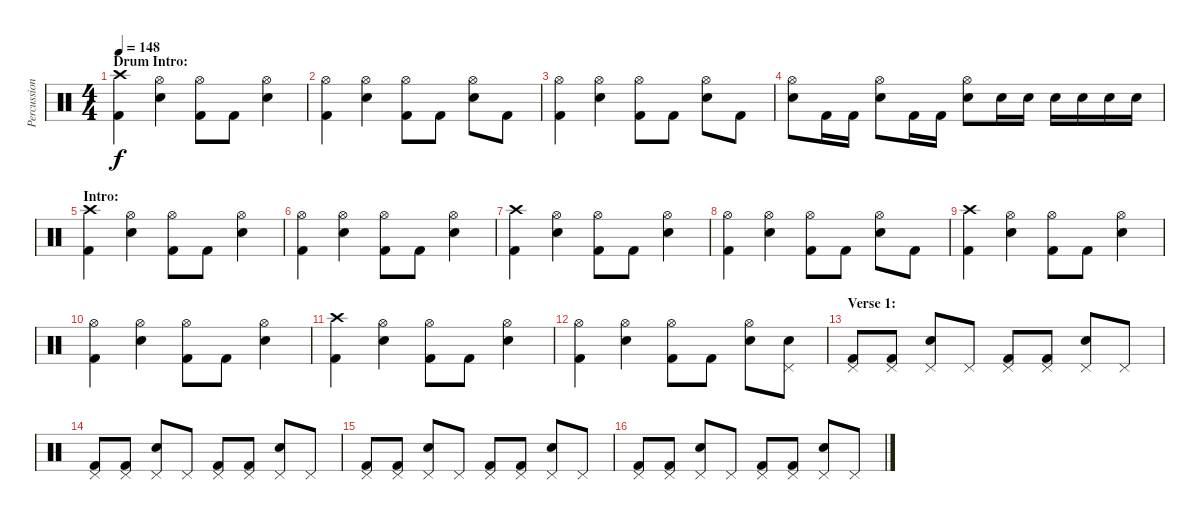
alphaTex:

\track ("Percussion" "Percussion") {instrument percussion}
\staff {score}
\articulation defaults
\ts (4 4)
\section ("" "Drum Intro:")
\tempo 148
\clef neutral
\ks c
("Crash high (hit)" "Kick (hit) 2").4{dy f} ("Hi-Hat (open)" "Electric Snare (hit)").4 ("Hi-Hat (open)" "Kick (hit) 2").8 "Kick (hit) 2".8 ("Hi-Hat (open)" "Electric Snare (hit)").4 |
("Hi-Hat (open)" "Kick (hit) 2").4 ("Hi-Hat (open)" "Electric Snare (hit)").4 ("Hi-Hat (open)" "Kick (hit) 2").8 "Kick (hit) 2".8 ("Hi-Hat (open)" "Electric Snare (hit)").8 "Kick (hit) 2".8 |
("Hi-Hat (open)" "Kick (hit) 2").4 ("Hi-Hat (open)" "Electric Snare (hit)").4 ("Hi-Hat (open)" "Kick (hit) 2").8 "Kick (hit) 2".8 ("Hi-Hat (open)" "Electric Snare (hit)").8 "Kick (hit) 2".8 |
("Hi-Hat (open)" "Electric Snare (hit)").8 "Kick (hit) 2".16 "Kick (hit) 2".16 ("Hi-Hat (open)" "Electric Snare (hit)").8 "Kick (hit) 2".16 "Kick (hit) 2".16 ("Hi-Hat (open)" "Electric Snare (hit)").8 "Electric Snare (hit)".16 "Electric Snare (hit)".16 "Electric Snare (hit)".16 "Electric Snare (hit)".16 "Electric Snare (hit)".16 "Electric Snare (hit)".16 |
\section ("" "Intro:")
("Crash high (hit)" "Kick (hit) 2").4 ("Hi-Hat (open)" "Electric Snare (hit)").4 ("Hi-Hat (open)" "Kick (hit) 2").8 "Kick (hit) 2".8 ("Hi-Hat (open)" "Electric Snare (hit)").4 |
("Hi-Hat (open)" "Kick (hit) 2").4 ("Hi-Hat (open)" "Electric Snare (hit)").4 ("Hi-Hat (open)" "Kick (hit) 2").8 "Kick (hit) 2".8 ("Hi-Hat (open)" "Electric Snare (hit)").4 |
("Crash high (hit)" "Kick (hit) 2").4 ("Hi-Hat (open)" "Electric Snare (hit)").4 ("Hi-Hat (open)" "Kick (hit) 2").8 "Kick (hit) 2".8 ("Hi-Hat (open)" "Electric Snare (hit)").4 |
("Hi-Hat (open)" "Kick (hit) 2").4 ("Hi-Hat (open)" "Electric Snare (hit)").4 ("Hi-Hat (open)" "Kick (hit) 2").8 "Kick (hit) 2".8 ("Hi-Hat (open)" "Electric Snare (hit)").8 "Kick (hit) 2".8 |
("Crash high (hit)" "Kick (hit) 2").4 ("Hi-Hat (open)" "Electric Snare (hit)").4 ("Hi-Hat (open)" "Kick (hit) 2").8 "Kick (hit) 2".8 ("Hi-Hat (open)" "Electric Snare (hit)").4 |
("Hi-Hat (open)" "Kick (hit) 2").4 ("Hi-Hat (open)" "Electric Snare (hit)").4 ("Hi-Hat (open)" "Kick (hit) 2").8 "Kick (hit) 2".8 ("Hi-Hat (open)" "Electric Snare (hit)").4 |
("Crash high (hit)" "Kick (hit) 2").4 ("Hi-Hat (open)" "Electric Snare (hit)").4 ("Hi-Hat (open)" "Kick (hit) 2").8 "Kick (hit) 2".8 ("Hi-Hat (open)" "Electric Snare (hit)").4 |
("Hi-Hat (open)" "Kick (hit) 2").4 ("Hi-Hat (open)" "Electric Snare (hit)").4 ("Hi-Hat (open)" "Kick (hit) 2").8 "Kick (hit) 2".8 ("Hi-Hat (open)" "Electric Snare (hit)").8 ("Pedal Hi-Hat (hit)" "Electric Snare (hit)").8 |
\section ("" "Verse 1:")
("Pedal Hi-Hat (hit)" "Kick (hit) 2").8 ("Pedal Hi-Hat (hit)" "Kick (hit) 2").8 ("Pedal Hi-Hat (hit)" "Electric Snare (hit)").8 "Pedal Hi-Hat (hit)".8 ("Pedal Hi-Hat (hit)" "Kick (hit) 2").8 ("Pedal Hi-Hat (hit)" "Kick (hit) 2").8 ("Pedal Hi-Hat (hit)" "Electric Snare (hit)").8 "Pedal Hi-Hat (hit)".8 |
("Pedal Hi-Hat (hit)" "Kick (hit) 2").8 ("Pedal Hi-Hat (hit)" "Kick (hit) 2").8 ("Pedal Hi-Hat (hit)" "Electric Snare (hit)").8 "Pedal Hi-Hat (hit)".8 ("Pedal Hi-Hat (hit)" "Kick (hit) 2").8 ("Pedal Hi-Hat (hit)" "Kick (hit) 2").8 ("Pedal Hi-Hat (hit)" "Electric Snare (hit)").8 "Pedal Hi-Hat (hit)".8 |
("Pedal Hi-Hat (hit)" "Kick (hit) 2").8 ("Pedal Hi-Hat (hit)" "Kick (hit) 2").8 ("Pedal Hi-Hat (hit)" "Electric Snare (hit)").8 "Pedal Hi-Hat (hit)".8 ("Pedal Hi-Hat (hit)" "Kick (hit) 2").8 ("Pedal Hi-Hat (hit)" "Kick (hit) 2").8 ("Pedal Hi-Hat (hit)" "Electric Snare (hit)").8 "Pedal Hi-Hat (hit)".8 |
("Pedal Hi-Hat (hit)" "Kick (hit) 2").8 ("Pedal Hi-Hat (hit)" "Kick (hit) 2").8 ("Pedal Hi-Hat (hit)" "Electric Snare (hit)").8 "Pedal Hi-Hat (hit)".8 ("Pedal Hi-Hat (hit)" "Kick (hit) 2").8 ("Pedal Hi-Hat (hit)" "Kick (hit) 2").8 ("Pedal Hi-Hat (hit)" "Electric Snare (hit)").8 "Pedal Hi-Hat (hit)".8
